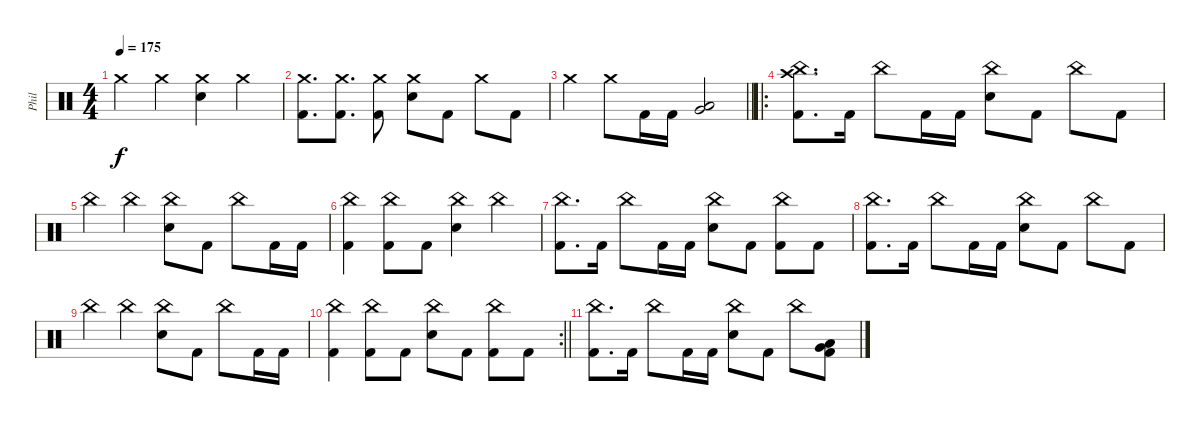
\track ("Phil" "Phil") {instrument percussion}
\staff {score}
\articulation defaults
\ts (4 4)
\tempo 175
\clef neutral
\ks c "Crash medium (hit)".4{dy f} "Crash medium (hit)".4
("Crash medium (hit)" "Electric Snare (hit)").4 "Crash medium (hit)".4 |
("Crash medium (hit)" "Kick (hit) 2").8{d} ("Crash medium (hit)" "Kick (hit) 2").8{d} ("Crash medium (hit)" "Kick (hit) 2").8 ("Crash medium (hit)" "Electric Snare (hit)").8 "Kick (hit) 2".8 "Crash medium (hit)".8 "Kick (hit) 2".8 |
\barLineRight lightlight "Crash medium (hit)".4 "Crash medium (hit)".8 "Kick (hit) 2".16 "Kick (hit) 2".16
("Low Tom (hit)" "Very Low Tom (hit)").2 |
\ro
\section ("" "")
("China (hit)" "Crash high (hit)" "Kick (hit) 2").8{d} "Kick (hit) 2".16 "China (hit)".8 "Kick (hit) 2".16 "Kick (hit) 2".16 ("China (hit)" "Electric Snare (hit)").8 "Kick (hit) 2".8 "China (hit)".8 "Kick (hit) 2".8 |
"China (hit)".4 "China (hit)".4 ("China (hit)" "Electric Snare (hit)").8 "Kick (hit) 2".8 "China (hit)".8 "Kick (hit) 2".16 "Kick (hit) 2".16 |
("China (hit)" "Kick (hit) 2").4 ("China (hit)" "Kick (hit) 2").8 "Kick (hit) 2".8 ("China (hit)" "Electric Snare (hit)").4 "China (hit)".4 |
("China (hit)" "Kick (hit) 2").8{d} "Kick (hit) 2".16 "China (hit)".8 "Kick (hit) 2".16 "Kick (hit) 2".16 ("China (hit)" "Electric Snare (hit)").8 "Kick (hit) 2".8 ("China (hit)" "Kick (hit) 2").8 "Kick (hit) 2".8 |
("China (hit)" "Kick (hit) 2").8{d} "Kick (hit) 2".16 "China (hit)".8 "Kick (hit) 2".16 "Kick (hit) 2".16 ("China (hit)" "Electric Snare (hit)").8 "Kick (hit) 2".8 "China (hit)".8 "Kick (hit) 2".8 |
"China (hit)".4 "China (hit)".4 ("China (hit)" "Electric Snare (hit)").8 "Kick (hit) 2".8 "China (hit)".8 "Kick (hit) 2".16 "Kick (hit) 2".16 |
\rc 2
\barLineRight lightlight
("China (hit)" "Kick (hit) 2").4 ("China (hit)" "Kick (hit) 2").8 "Kick (hit) 2".8 ("China (hit)" "Electric Snare (hit)").8 "Kick (hit) 2".8 ("China (hit)" "Kick (hit) 2").8 "Kick (hit) 2".8 |
("China (hit)" "Kick (hit) 2").8{d} "Kick (hit) 2".16 "China (hit)".8 "Kick (hit) 2".16 "Kick (hit) 2".16 ("China (hit)" "Electric Snare (hit)").8 "Kick (hit) 2".8 "China (hit)".8 ("Very Low Tom (hit)" "Low Floor Tom (hit)" "Kick (hit) 2").8
